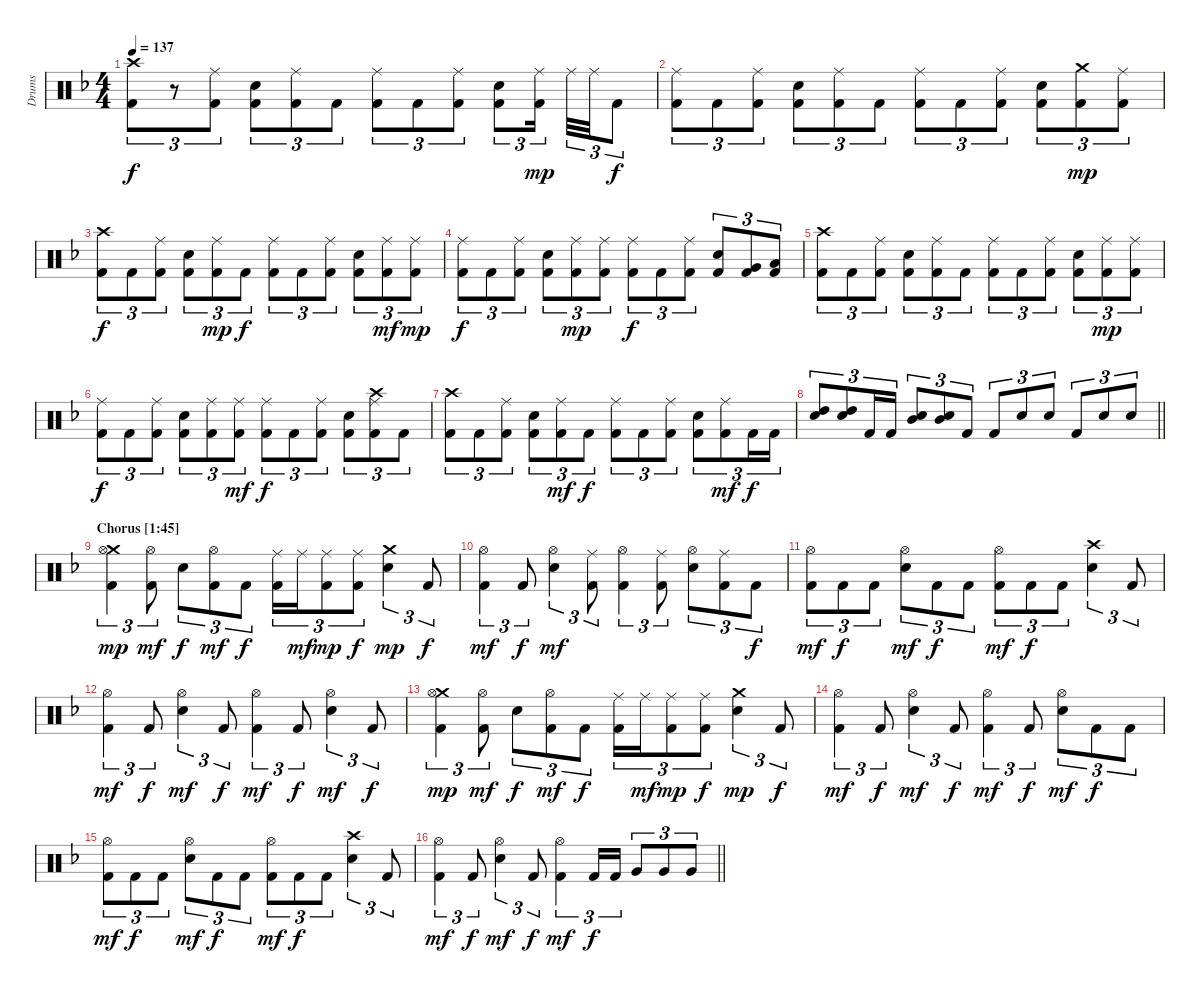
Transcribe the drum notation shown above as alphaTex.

\track ("Drums" "Drums") {instrument percussion}
\staff {score}
\articulation defaults
\ts (4 4)
\tempo 137
\clef neutral
\ks dminor
("Crash high (hit)" "Kick (hit) 2").8{tu (3 2) dy f} r.8{tu (3 2)} ("Ride (middle)" "Kick (hit) 2").8{tu (3 2)} ("Snare (hit) 2" "Kick (hit) 2").8{tu (3 2)} ("Ride (middle)" "Kick (hit) 2").8{tu (3 2)} "Kick (hit) 2".8{tu (3 2)} ("Ride (middle)" "Kick (hit) 2").8{tu (3 2)} "Kick (hit) 2".8{tu (3 2)} ("Ride (middle)" "Kick (hit) 2").8{tu (3 2)} ("Snare (hit) 2" "Kick (hit) 2").8{tu (3 2)} ("Ride (middle)" "Kick (hit) 2").16{tu (3 2) dy mp beam splitsecondary} "Ride (middle)".32{tu (3 2)} "Ride (middle)".32{tu (3 2)} "Kick (hit) 2".8{tu (3 2) dy f} |
("Ride (middle)" "Kick (hit) 2").8{tu (3 2)} "Kick (hit) 2".8{tu (3 2)} ("Ride (middle)" "Kick (hit) 2").8{tu (3 2)} ("Snare (hit) 2" "Kick (hit) 2").8{tu (3 2)} ("Ride (middle)" "Kick (hit) 2").8{tu (3 2)} "Kick (hit) 2".8{tu (3 2)} ("Ride (middle)" "Kick (hit) 2").8{tu (3 2)} "Kick (hit) 2".8{tu (3 2)} ("Ride (middle)" "Kick (hit) 2").8{tu (3 2)} ("Snare (hit) 2" "Kick (hit) 2").8{tu (3 2)} ("Crash medium (hit)" "Kick (hit) 2").8{tu (3 2) dy mp} ("Ride (middle)" "Kick (hit) 2").8{tu (3 2)} |
("Crash high (hit)" "Kick (hit) 2").8{tu (3 2) dy f} "Kick (hit) 2".8{tu (3 2)} ("Ride (middle)" "Kick (hit) 2").8{tu (3 2)} ("Snare (hit) 2" "Kick (hit) 2").8{tu (3 2)} ("Ride (middle)" "Kick (hit) 2").8{tu (3 2) dy mp} "Kick (hit) 2".8{tu (3 2) dy f} ("Ride (middle)" "Kick (hit) 2").8{tu (3 2)} "Kick (hit) 2".8{tu (3 2)} ("Ride (middle)" "Kick (hit) 2").8{tu (3 2)} ("Snare (hit) 2" "Kick (hit) 2").8{tu (3 2)} ("Ride (middle)" "Kick (hit) 2").8{tu (3 2) dy mf} ("Ride (middle)" "Kick (hit) 2").8{tu (3 2) dy mp} |
("Ride (middle)" "Kick (hit) 2").8{tu (3 2) dy f} "Kick (hit) 2".8{tu (3 2)} ("Ride (middle)" "Kick (hit) 2").8{tu (3 2)} ("Snare (hit) 2" "Kick (hit) 2").8{tu (3 2)} ("Ride (middle)" "Kick (hit) 2").8{tu (3 2) dy mp} ("Ride (middle)" "Kick (hit) 2").8{tu (3 2)} ("Ride (middle)" "Kick (hit) 2").8{tu (3 2) dy f} "Kick (hit) 2".8{tu (3 2)} ("Ride (middle)" "Kick (hit) 2").8{tu (3 2)} ("Snare (hit) 2" "Kick (hit) 2").8{tu (3 2)} ("Very Low Tom (hit)" "Kick (hit) 2").8{tu (3 2)} ("Low Floor Tom (hit)" "Kick (hit) 2").8{tu (3 2)} |
("Crash high (hit)" "Kick (hit) 2").8{tu (3 2)} "Kick (hit) 2".8{tu (3 2)} ("Ride (middle)" "Kick (hit) 2").8{tu (3 2)} ("Snare (hit) 2" "Kick (hit) 2").8{tu (3 2)} ("Ride (middle)" "Kick (hit) 2").8{tu (3 2)} "Kick (hit) 2".8{tu (3 2)} ("Ride (middle)" "Kick (hit) 2").8{tu (3 2)} "Kick (hit) 2".8{tu (3 2)} ("Ride (middle)" "Kick (hit) 2").8{tu (3 2)} ("Snare (hit) 2" "Kick (hit) 2").8{tu (3 2)} ("Ride (middle)" "Kick (hit) 2").8{tu (3 2) dy mp} ("Ride (middle)" "Kick (hit) 2").8{tu (3 2)} |
("Ride (middle)" "Kick (hit) 2").8{tu (3 2) dy f} "Kick (hit) 2".8{tu (3 2)} ("Ride (middle)" "Kick (hit) 2").8{tu (3 2)} ("Snare (hit) 2" "Kick (hit) 2").8{tu (3 2)} ("Ride (middle)" "Kick (hit) 2").8{tu (3 2)} ("Ride (middle)" "Kick (hit) 2").8{tu (3 2) dy mf} ("Ride (middle)" "Kick (hit) 2").8{tu (3 2) dy f} "Kick (hit) 2".8{tu (3 2)} ("Ride (middle)" "Kick (hit) 2").8{tu (3 2)} ("Snare (hit) 2" "Kick (hit) 2").8{tu (3 2)} ("Crash high (hit)" "Ride (middle)" "Kick (hit) 2").8{tu (3 2)} "Kick (hit) 2".8{tu (3 2)} |
("Crash high (hit)" "Kick (hit) 2").8{tu (3 2)} "Kick (hit) 2".8{tu (3 2)} ("Ride (middle)" "Kick (hit) 2").8{tu (3 2)} ("Snare (hit) 2" "Kick (hit) 2").8{tu (3 2)} ("Ride (middle)" "Kick (hit) 2").8{tu (3 2) dy mf} "Kick (hit) 2".8{tu (3 2) dy f} ("Ride (middle)" "Kick (hit) 2").8{tu (3 2)} "Kick (hit) 2".8{tu (3 2)} ("Ride (middle)" "Kick (hit) 2").8{tu (3 2)} ("Snare (hit) 2" "Kick (hit) 2").8{tu (3 2)} ("Ride (middle)" "Kick (hit) 2").8{tu (3 2) dy mf} "Kick (hit) 2".16{tu (3 2) dy f} "Kick (hit) 2".16{tu (3 2)} |
\barLineRight lightlight
("High Tom (hit)" "Snare (hit) 2").8{tu (3 2)} ("High Tom (hit)" "Snare (hit) 2").8{tu (3 2)} "Kick (hit) 2".16{tu (3 2)} "Kick (hit) 2".16{tu (3 2)} ("Mid Tom (hit)" "Snare (hit) 2").8{tu (3 2)} ("Mid Tom (hit)" "Snare (hit) 2").8{tu (3 2)} "Kick (hit) 2".8{tu (3 2)} "Kick (hit) 2".8{tu (3 2)} "Snare (hit) 2".8{tu (3 2)} "Snare (hit) 2".8{tu (3 2)} "Kick (hit) 2".8{tu (3 2)} "Snare (hit) 2".8{tu (3 2)} "Snare (hit) 2".8{tu (3 2)} |
\section ("" "Chorus [1:45]")
("Crash medium (hit)" "Hi-Hat (open)" "Kick (hit) 2").4{tu (3 2) dy mp} ("Hi-Hat (open)" "Kick (hit) 2").8{tu (3 2) dy mf} "Snare (hit) 2".8{tu (3 2) dy f} ("Hi-Hat (open)" "Kick (hit) 2").8{tu (3 2) dy mf} "Kick (hit) 2".8{tu (3 2) dy f} ("Ride (middle)" "Kick (hit) 2").16{tu (3 2)} "Ride (middle)".16{tu (3 2) dy mf} ("Ride (middle)" "Kick (hit) 2").8{tu (3 2) dy mp} ("Ride (middle)" "Kick (hit) 2").8{tu (3 2) dy f} ("Crash medium (hit)" "Snare (hit) 2").4{tu (3 2) dy mp} "Kick (hit) 2".8{tu (3 2) dy f} |
("Hi-Hat (open)" "Kick (hit) 2").4{tu (3 2) dy mf} "Kick (hit) 2".8{tu (3 2) dy f} ("Hi-Hat (open)" "Snare (hit) 2").4{tu (3 2) dy mf} ("Ride (middle)" "Kick (hit) 2").8{tu (3 2)} ("Hi-Hat (open)" "Kick (hit) 2").4{tu (3 2)} ("Ride (middle)" "Kick (hit) 2").8{tu (3 2)} ("Hi-Hat (open)" "Snare (hit) 2").8{tu (3 2)} ("Ride (middle)" "Kick (hit) 2").8{tu (3 2)} "Kick (hit) 2".8{tu (3 2) dy f} |
("Hi-Hat (open)" "Kick (hit) 2").8{tu (3 2) dy mf} "Kick (hit) 2".8{tu (3 2) dy f} "Kick (hit) 2".8{tu (3 2)} ("Hi-Hat (open)" "Snare (hit) 2").8{tu (3 2) dy mf} "Kick (hit) 2".8{tu (3 2) dy f} "Kick (hit) 2".8{tu (3 2)} ("Hi-Hat (open)" "Kick (hit) 2").8{tu (3 2) dy mf} "Kick (hit) 2".8{tu (3 2) dy f} "Kick (hit) 2".8{tu (3 2)} ("Crash high (hit)" "Snare (hit) 2").4{tu (3 2)} "Kick (hit) 2".8{tu (3 2)} |
("Hi-Hat (open)" "Kick (hit) 2").4{tu (3 2) dy mf} "Kick (hit) 2".8{tu (3 2) dy f} ("Hi-Hat (open)" "Snare (hit) 2").4{tu (3 2) dy mf} "Kick (hit) 2".8{tu (3 2) dy f} ("Hi-Hat (open)" "Kick (hit) 2").4{tu (3 2) dy mf} "Kick (hit) 2".8{tu (3 2) dy f} ("Hi-Hat (open)" "Snare (hit) 2").4{tu (3 2) dy mf} "Kick (hit) 2".8{tu (3 2) dy f} |
("Crash medium (hit)" "Hi-Hat (open)" "Kick (hit) 2").4{tu (3 2) dy mp} ("Hi-Hat (open)" "Kick (hit) 2").8{tu (3 2) dy mf} "Snare (hit) 2".8{tu (3 2) dy f} ("Hi-Hat (open)" "Kick (hit) 2").8{tu (3 2) dy mf} "Kick (hit) 2".8{tu (3 2) dy f} ("Ride (middle)" "Kick (hit) 2").16{tu (3 2)} "Ride (middle)".16{tu (3 2) dy mf} ("Ride (middle)" "Kick (hit) 2").8{tu (3 2) dy mp} ("Ride (middle)" "Kick (hit) 2").8{tu (3 2) dy f} ("Crash medium (hit)" "Snare (hit) 2").4{tu (3 2) dy mp} "Kick (hit) 2".8{tu (3 2) dy f} |
("Hi-Hat (open)" "Kick (hit) 2").4{tu (3 2) dy mf} "Kick (hit) 2".8{tu (3 2) dy f} ("Hi-Hat (open)" "Snare (hit) 2").4{tu (3 2) dy mf} "Kick (hit) 2".8{tu (3 2) dy f} ("Hi-Hat (open)" "Kick (hit) 2").4{tu (3 2) dy mf} "Kick (hit) 2".8{tu (3 2) dy f} ("Hi-Hat (open)" "Snare (hit) 2").8{tu (3 2) dy mf} "Kick (hit) 2".8{tu (3 2) dy f} "Kick (hit) 2".8{tu (3 2)} |
("Hi-Hat (open)" "Kick (hit) 2").8{tu (3 2) dy mf} "Kick (hit) 2".8{tu (3 2) dy f} "Kick (hit) 2".8{tu (3 2)} ("Hi-Hat (open)" "Snare (hit) 2").8{tu (3 2) dy mf} "Kick (hit) 2".8{tu (3 2) dy f} "Kick (hit) 2".8{tu (3 2)} ("Hi-Hat (open)" "Kick (hit) 2").8{tu (3 2) dy mf} "Kick (hit) 2".8{tu (3 2) dy f} "Kick (hit) 2".8{tu (3 2)} ("Crash high (hit)" "Snare (hit) 2").4{tu (3 2)} "Kick (hit) 2".8{tu (3 2)} |
\barLineRight lightlight
("Hi-Hat (open)" "Kick (hit) 2").4{tu (3 2) dy mf} "Kick (hit) 2".8{tu (3 2) dy f} ("Hi-Hat (open)" "Snare (hit) 2").4{tu (3 2) dy mf} "Kick (hit) 2".8{tu (3 2) dy f} ("Hi-Hat (open)" "Kick (hit) 2").4{tu (3 2) dy mf} "Kick (hit) 2".16{tu (3 2) dy f} "Kick (hit) 2".16{tu (3 2)} "Very Low Tom (hit)".8{tu (3 2)} "Very Low Tom (hit)".8{tu (3 2)} "Very Low Tom (hit)".8{tu (3 2)}
